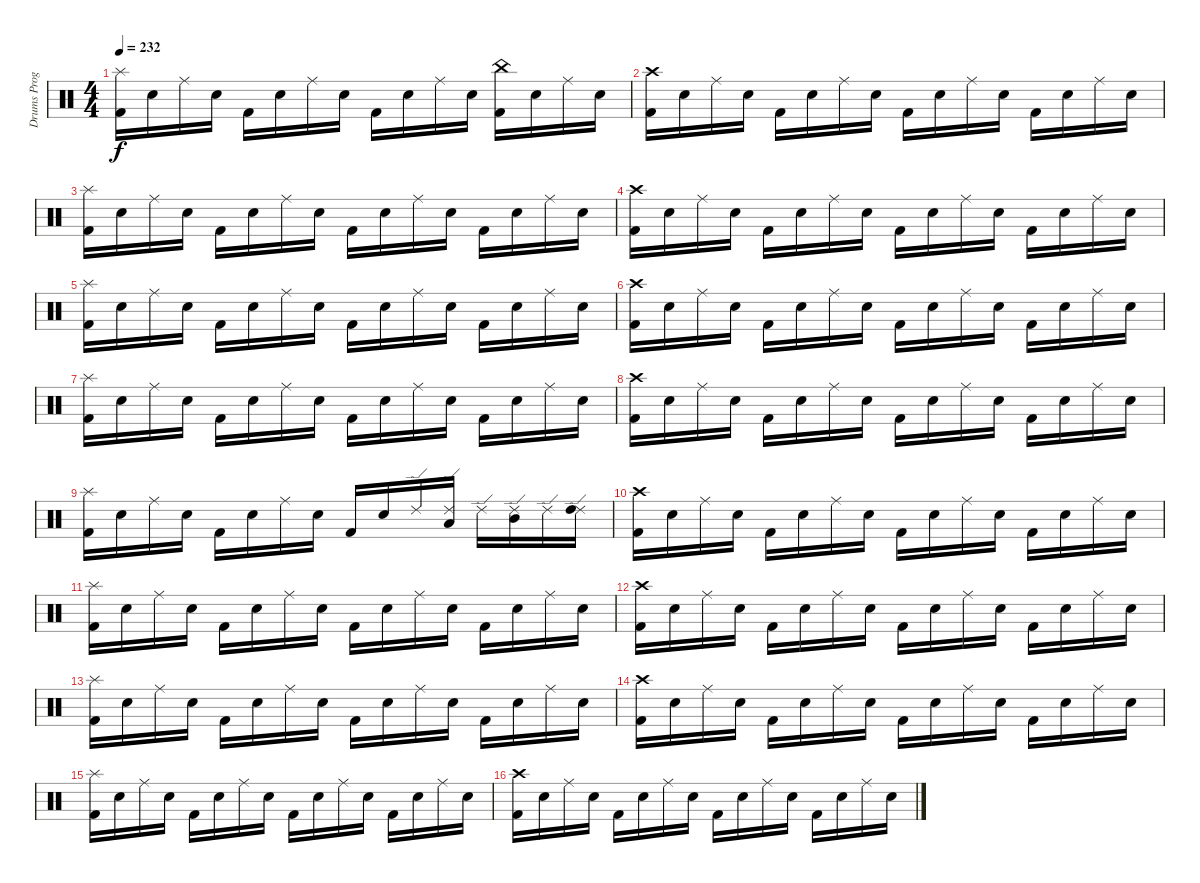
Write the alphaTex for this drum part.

\track ("Drums Programming" "Drums Prog") {instrument percussion}
\staff {score}
\articulation defaults
\ts (4 4)
\tempo 232
\clef neutral
\ks c
("Splash (hit)" "Kick (hit) 2").16{dy f} "Electric Snare (hit)".16 "Ride (middle)".16 "Electric Snare (hit)".16 "Kick (hit) 2".16 "Electric Snare (hit)".16 "Ride (middle)".16 "Electric Snare (hit)".16 "Kick (hit) 2".16 "Electric Snare (hit)".16 "Ride (middle)".16 "Electric Snare (hit)".16 ("China (hit)" "Kick (hit) 2").16 "Electric Snare (hit)".16 "Ride (middle)".16 "Electric Snare (hit)".16 |
("Crash high (hit)" "Kick (hit) 2").16 "Electric Snare (hit)".16 "Ride (middle)".16 "Electric Snare (hit)".16 "Kick (hit) 2".16 "Electric Snare (hit)".16 "Ride (middle)".16 "Electric Snare (hit)".16 "Kick (hit) 2".16 "Electric Snare (hit)".16 "Ride (middle)".16 "Electric Snare (hit)".16 "Kick (hit) 2".16 "Electric Snare (hit)".16 "Ride (middle)".16 "Electric Snare (hit)".16 |
("Splash (hit)" "Kick (hit) 2").16 "Electric Snare (hit)".16 "Ride (middle)".16 "Electric Snare (hit)".16 "Kick (hit) 2".16 "Electric Snare (hit)".16 "Ride (middle)".16 "Electric Snare (hit)".16 "Kick (hit) 2".16 "Electric Snare (hit)".16 "Ride (middle)".16 "Electric Snare (hit)".16 "Kick (hit) 2".16 "Electric Snare (hit)".16 "Ride (middle)".16 "Electric Snare (hit)".16 |
("Crash high (hit)" "Kick (hit) 2").16 "Electric Snare (hit)".16 "Ride (middle)".16 "Electric Snare (hit)".16 "Kick (hit) 2".16 "Electric Snare (hit)".16 "Ride (middle)".16 "Electric Snare (hit)".16 "Kick (hit) 2".16 "Electric Snare (hit)".16 "Ride (middle)".16 "Electric Snare (hit)".16 "Kick (hit) 2".16 "Electric Snare (hit)".16 "Ride (middle)".16 "Electric Snare (hit)".16 |
("Splash (hit)" "Kick (hit) 2").16 "Electric Snare (hit)".16 "Ride (middle)".16 "Electric Snare (hit)".16 "Kick (hit) 2".16 "Electric Snare (hit)".16 "Ride (middle)".16 "Electric Snare (hit)".16 "Kick (hit) 2".16 "Electric Snare (hit)".16 "Ride (middle)".16 "Electric Snare (hit)".16 "Kick (hit) 2".16 "Electric Snare (hit)".16 "Ride (middle)".16 "Electric Snare (hit)".16 |
("Crash high (hit)" "Kick (hit) 2").16 "Electric Snare (hit)".16 "Ride (middle)".16 "Electric Snare (hit)".16 "Kick (hit) 2".16 "Electric Snare (hit)".16 "Ride (middle)".16 "Electric Snare (hit)".16 "Kick (hit) 2".16 "Electric Snare (hit)".16 "Ride (middle)".16 "Electric Snare (hit)".16 "Kick (hit) 2".16 "Electric Snare (hit)".16 "Ride (middle)".16 "Electric Snare (hit)".16 |
("Splash (hit)" "Kick (hit) 2").16 "Electric Snare (hit)".16 "Ride (middle)".16 "Electric Snare (hit)".16 "Kick (hit) 2".16 "Electric Snare (hit)".16 "Ride (middle)".16 "Electric Snare (hit)".16 "Kick (hit) 2".16 "Electric Snare (hit)".16 "Ride (middle)".16 "Electric Snare (hit)".16 "Kick (hit) 2".16 "Electric Snare (hit)".16 "Ride (middle)".16 "Electric Snare (hit)".16 |
("Crash high (hit)" "Kick (hit) 2").16 "Electric Snare (hit)".16 "Ride (middle)".16 "Electric Snare (hit)".16 "Kick (hit) 2".16 "Electric Snare (hit)".16 "Ride (middle)".16 "Electric Snare (hit)".16 "Kick (hit) 2".16 "Electric Snare (hit)".16 "Ride (middle)".16 "Electric Snare (hit)".16 "Kick (hit) 2".16 "Electric Snare (hit)".16 "Ride (middle)".16 "Electric Snare (hit)".16 |
("Splash (hit)" "Kick (hit) 2").16 "Electric Snare (hit)".16 "Ride (middle)".16 "Electric Snare (hit)".16 "Kick (hit) 2".16 "Electric Snare (hit)".16 "Ride (middle)".16 "Electric Snare (hit)".16 "Kick (hit) 2".16 "Electric Snare (hit)".16 "Ride (edge) 2".16 ("Ride (edge) 2" "Low Tom (hit)").16 "Ride (edge) 2".16 ("Ride (edge) 2" "Mid Tom (hit)").16 "Ride (edge) 2".16 ("Ride (edge) 2" "High Tom (hit)").16 |
("Crash high (hit)" "Kick (hit) 2").16 "Electric Snare (hit)".16 "Ride (middle)".16 "Electric Snare (hit)".16 "Kick (hit) 2".16 "Electric Snare (hit)".16 "Ride (middle)".16 "Electric Snare (hit)".16 "Kick (hit) 2".16 "Electric Snare (hit)".16 "Ride (middle)".16 "Electric Snare (hit)".16 "Kick (hit) 2".16 "Electric Snare (hit)".16 "Ride (middle)".16 "Electric Snare (hit)".16 |
("Splash (hit)" "Kick (hit) 2").16 "Electric Snare (hit)".16 "Ride (middle)".16 "Electric Snare (hit)".16 "Kick (hit) 2".16 "Electric Snare (hit)".16 "Ride (middle)".16 "Electric Snare (hit)".16 "Kick (hit) 2".16 "Electric Snare (hit)".16 "Ride (middle)".16 "Electric Snare (hit)".16 "Kick (hit) 2".16 "Electric Snare (hit)".16 "Ride (middle)".16 "Electric Snare (hit)".16 |
("Crash high (hit)" "Kick (hit) 2").16 "Electric Snare (hit)".16 "Ride (middle)".16 "Electric Snare (hit)".16 "Kick (hit) 2".16 "Electric Snare (hit)".16 "Ride (middle)".16 "Electric Snare (hit)".16 "Kick (hit) 2".16 "Electric Snare (hit)".16 "Ride (middle)".16 "Electric Snare (hit)".16 "Kick (hit) 2".16 "Electric Snare (hit)".16 "Ride (middle)".16 "Electric Snare (hit)".16 |
("Splash (hit)" "Kick (hit) 2").16 "Electric Snare (hit)".16 "Ride (middle)".16 "Electric Snare (hit)".16 "Kick (hit) 2".16 "Electric Snare (hit)".16 "Ride (middle)".16 "Electric Snare (hit)".16 "Kick (hit) 2".16 "Electric Snare (hit)".16 "Ride (middle)".16 "Electric Snare (hit)".16 "Kick (hit) 2".16 "Electric Snare (hit)".16 "Ride (middle)".16 "Electric Snare (hit)".16 |
("Crash high (hit)" "Kick (hit) 2").16 "Electric Snare (hit)".16 "Ride (middle)".16 "Electric Snare (hit)".16 "Kick (hit) 2".16 "Electric Snare (hit)".16 "Ride (middle)".16 "Electric Snare (hit)".16 "Kick (hit) 2".16 "Electric Snare (hit)".16 "Ride (middle)".16 "Electric Snare (hit)".16 "Kick (hit) 2".16 "Electric Snare (hit)".16 "Ride (middle)".16 "Electric Snare (hit)".16 |
("Splash (hit)" "Kick (hit) 2").16 "Electric Snare (hit)".16 "Ride (middle)".16 "Electric Snare (hit)".16 "Kick (hit) 2".16 "Electric Snare (hit)".16 "Ride (middle)".16 "Electric Snare (hit)".16 "Kick (hit) 2".16 "Electric Snare (hit)".16 "Ride (middle)".16 "Electric Snare (hit)".16 "Kick (hit) 2".16 "Electric Snare (hit)".16 "Ride (middle)".16 "Electric Snare (hit)".16 |
("Crash high (hit)" "Kick (hit) 2").16 "Electric Snare (hit)".16 "Ride (middle)".16 "Electric Snare (hit)".16 "Kick (hit) 2".16 "Electric Snare (hit)".16 "Ride (middle)".16 "Electric Snare (hit)".16 "Kick (hit) 2".16 "Electric Snare (hit)".16 "Ride (middle)".16 "Electric Snare (hit)".16 "Kick (hit) 2".16 "Electric Snare (hit)".16 "Ride (middle)".16 "Electric Snare (hit)".16
